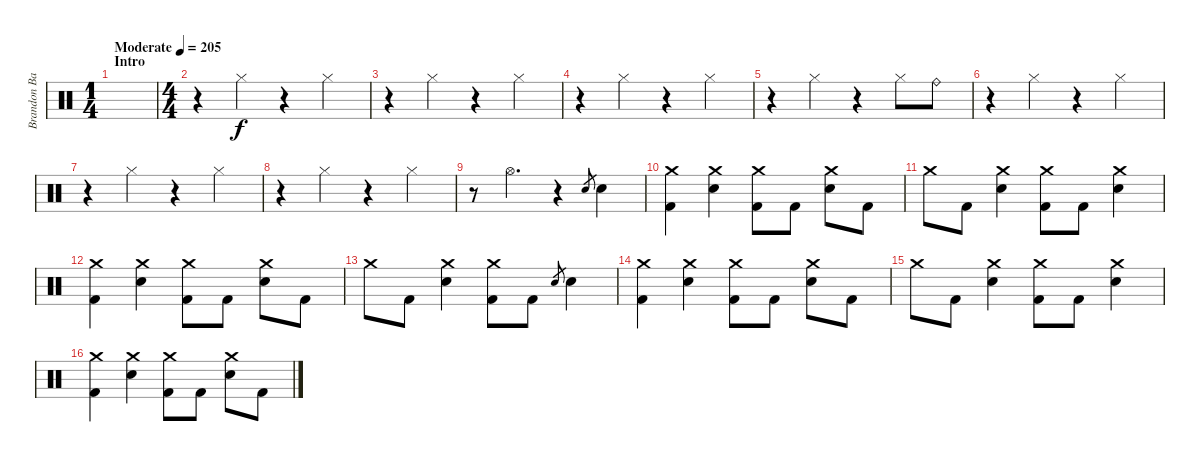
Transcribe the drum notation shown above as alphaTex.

\track ("Brandon Barnes - Drums" "Brandon Ba") {instrument percussion}
\staff {score}
\articulation defaults
\ts (1 4)
\section ("" "Intro")
\tempo (205 "Moderate")
\clef neutral
\ks c
|
\ts (4 4)
r.4 "Hi-Hat (closed)".4 r.4 "Hi-Hat (closed)".4 |
r.4 "Hi-Hat (closed)".4 r.4 "Hi-Hat (closed)".4 |
r.4 "Hi-Hat (closed)".4 r.4 "Hi-Hat (closed)".4 |
r.4 "Hi-Hat (closed)".4 r.4 "Hi-Hat (closed)".8 "Ride (bell)".8 |
r.4 "Hi-Hat (closed)".4 r.4 "Hi-Hat (closed)".4 |
r.4 "Hi-Hat (closed)".4 r.4 "Hi-Hat (closed)".4 |
r.4 "Hi-Hat (closed)".4 r.4 "Hi-Hat (closed)".4 |
r.8 "Hi-Hat (open)".4{d} r.4 "Electric Snare (hit)".8{gr} "Electric Snare (hit)".4 |
("Crash medium (hit)" "Kick (hit) 2").4 ("Crash medium (hit)" "Electric Snare (hit)").4 ("Crash medium (hit)" "Kick (hit) 2").8 "Kick (hit) 2".8 ("Crash medium (hit)" "Electric Snare (hit)").8 "Kick (hit) 2".8 |
"Crash medium (hit)".8 "Kick (hit) 2".8 ("Crash medium (hit)" "Electric Snare (hit)").4 ("Crash medium (hit)" "Kick (hit) 2").8 "Kick (hit) 2".8 ("Crash medium (hit)" "Electric Snare (hit)").4 |
("Crash medium (hit)" "Kick (hit) 2").4 ("Crash medium (hit)" "Electric Snare (hit)").4 ("Crash medium (hit)" "Kick (hit) 2").8 "Kick (hit) 2".8 ("Crash medium (hit)" "Electric Snare (hit)").8 "Kick (hit) 2".8 |
"Crash medium (hit)".8 "Kick (hit) 2".8 ("Crash medium (hit)" "Electric Snare (hit)").4 ("Crash medium (hit)" "Kick (hit) 2").8 "Kick (hit) 2".8 "Electric Snare (hit)".8{gr} "Electric Snare (hit)".4 |
("Crash medium (hit)" "Kick (hit) 2").4 ("Crash medium (hit)" "Electric Snare (hit)").4 ("Crash medium (hit)" "Kick (hit) 2").8 "Kick (hit) 2".8 ("Crash medium (hit)" "Electric Snare (hit)").8 "Kick (hit) 2".8 |
"Crash medium (hit)".8 "Kick (hit) 2".8 ("Crash medium (hit)" "Electric Snare (hit)").4 ("Crash medium (hit)" "Kick (hit) 2").8 "Kick (hit) 2".8 ("Crash medium (hit)" "Electric Snare (hit)").4 |
("Crash medium (hit)" "Kick (hit) 2").4 ("Crash medium (hit)" "Electric Snare (hit)").4 ("Crash medium (hit)" "Kick (hit) 2").8 "Kick (hit) 2".8 ("Crash medium (hit)" "Electric Snare (hit)").8 "Kick (hit) 2".8
